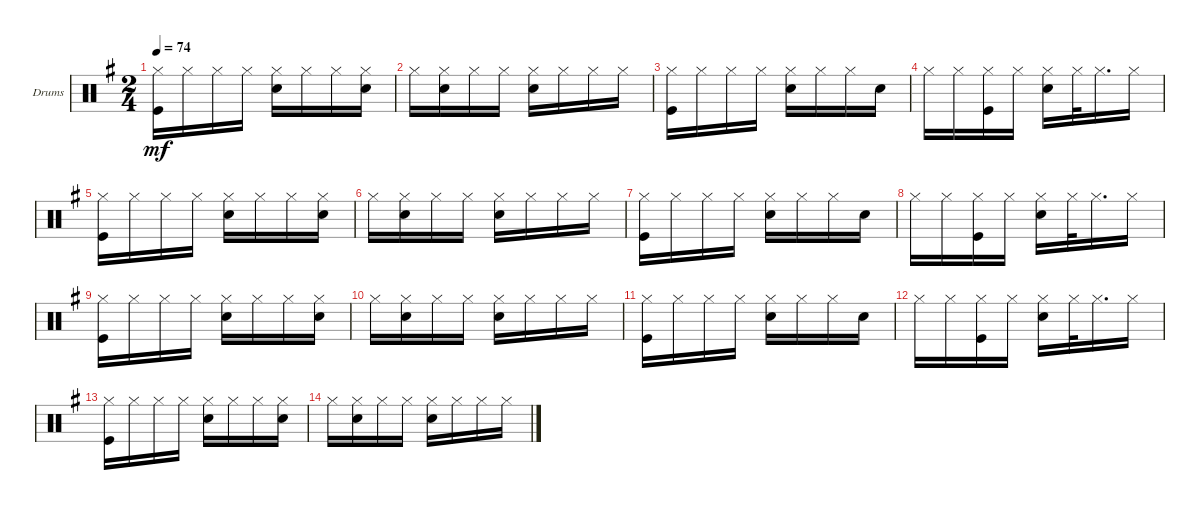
\defaultSystemsLayout 4
\bracketExtendMode groupsimilarinstruments
\firstSystemTrackNameOrientation horizontal
\otherSystemsTrackNameOrientation horizontal
\track ("Drumkit" "Drums") {instrument percussion}
\staff {score}
\articulation defaults
\ts (2 4)
\tempo 74
\clef neutral
\ks eminor
("Hi-Hat (closed)" "Kick (hit)").16{dy mf} "Hi-Hat (closed)".16 "Hi-Hat (closed)".16 "Hi-Hat (closed)".16 ("Hi-Hat (closed)" "Snare (hit) 2").16 "Hi-Hat (closed)".16 "Hi-Hat (closed)".16 ("Hi-Hat (closed)" "Snare (hit) 2").16 |
"Hi-Hat (closed)".16 ("Hi-Hat (closed)" "Snare (hit) 2").16 "Hi-Hat (closed)".16 "Hi-Hat (closed)".16 ("Hi-Hat (closed)" "Snare (hit) 2").16 "Hi-Hat (closed)".16 "Hi-Hat (closed)".16 "Hi-Hat (closed)".16 |
("Hi-Hat (closed)" "Kick (hit)").16 "Hi-Hat (closed)".16 "Hi-Hat (closed)".16 "Hi-Hat (closed)".16 ("Hi-Hat (closed)" "Snare (hit) 2").16 "Hi-Hat (closed)".16 "Hi-Hat (closed)".16 "Snare (hit) 2".16 |
"Hi-Hat (closed)".16 "Hi-Hat (closed)".16 ("Hi-Hat (closed)" "Kick (hit)").16 "Hi-Hat (closed)".16 ("Hi-Hat (closed)" "Snare (hit) 2").16 "Hi-Hat (closed)".32 "Hi-Hat (closed)".16{d} "Hi-Hat (closed)".16 |
("Hi-Hat (closed)" "Kick (hit)").16 "Hi-Hat (closed)".16 "Hi-Hat (closed)".16 "Hi-Hat (closed)".16 ("Hi-Hat (closed)" "Snare (hit) 2").16 "Hi-Hat (closed)".16 "Hi-Hat (closed)".16 ("Hi-Hat (closed)" "Snare (hit) 2").16 |
"Hi-Hat (closed)".16 ("Hi-Hat (closed)" "Snare (hit) 2").16 "Hi-Hat (closed)".16 "Hi-Hat (closed)".16 ("Hi-Hat (closed)" "Snare (hit) 2").16 "Hi-Hat (closed)".16 "Hi-Hat (closed)".16 "Hi-Hat (closed)".16 |
("Hi-Hat (closed)" "Kick (hit)").16 "Hi-Hat (closed)".16 "Hi-Hat (closed)".16 "Hi-Hat (closed)".16 ("Hi-Hat (closed)" "Snare (hit) 2").16 "Hi-Hat (closed)".16 "Hi-Hat (closed)".16 "Snare (hit) 2".16 |
"Hi-Hat (closed)".16 "Hi-Hat (closed)".16 ("Hi-Hat (closed)" "Kick (hit)").16 "Hi-Hat (closed)".16 ("Hi-Hat (closed)" "Snare (hit) 2").16 "Hi-Hat (closed)".32 "Hi-Hat (closed)".16{d} "Hi-Hat (closed)".16 |
("Hi-Hat (closed)" "Kick (hit)").16 "Hi-Hat (closed)".16 "Hi-Hat (closed)".16 "Hi-Hat (closed)".16 ("Hi-Hat (closed)" "Snare (hit) 2").16 "Hi-Hat (closed)".16 "Hi-Hat (closed)".16 ("Hi-Hat (closed)" "Snare (hit) 2").16 |
"Hi-Hat (closed)".16 ("Hi-Hat (closed)" "Snare (hit) 2").16 "Hi-Hat (closed)".16 "Hi-Hat (closed)".16 ("Hi-Hat (closed)" "Snare (hit) 2").16 "Hi-Hat (closed)".16 "Hi-Hat (closed)".16 "Hi-Hat (closed)".16 |
("Hi-Hat (closed)" "Kick (hit)").16 "Hi-Hat (closed)".16 "Hi-Hat (closed)".16 "Hi-Hat (closed)".16 ("Hi-Hat (closed)" "Snare (hit) 2").16 "Hi-Hat (closed)".16 "Hi-Hat (closed)".16 "Snare (hit) 2".16 |
"Hi-Hat (closed)".16 "Hi-Hat (closed)".16 ("Hi-Hat (closed)" "Kick (hit)").16 "Hi-Hat (closed)".16 ("Hi-Hat (closed)" "Snare (hit) 2").16 "Hi-Hat (closed)".32 "Hi-Hat (closed)".16{d} "Hi-Hat (closed)".16 |
("Hi-Hat (closed)" "Kick (hit)").16 "Hi-Hat (closed)".16 "Hi-Hat (closed)".16 "Hi-Hat (closed)".16 ("Hi-Hat (closed)" "Snare (hit) 2").16 "Hi-Hat (closed)".16 "Hi-Hat (closed)".16 ("Hi-Hat (closed)" "Snare (hit) 2").16 |
"Hi-Hat (closed)".16 ("Hi-Hat (closed)" "Snare (hit) 2").16 "Hi-Hat (closed)".16 "Hi-Hat (closed)".16 ("Hi-Hat (closed)" "Snare (hit) 2").16 "Hi-Hat (closed)".16 "Hi-Hat (closed)".16 "Hi-Hat (closed)".16
